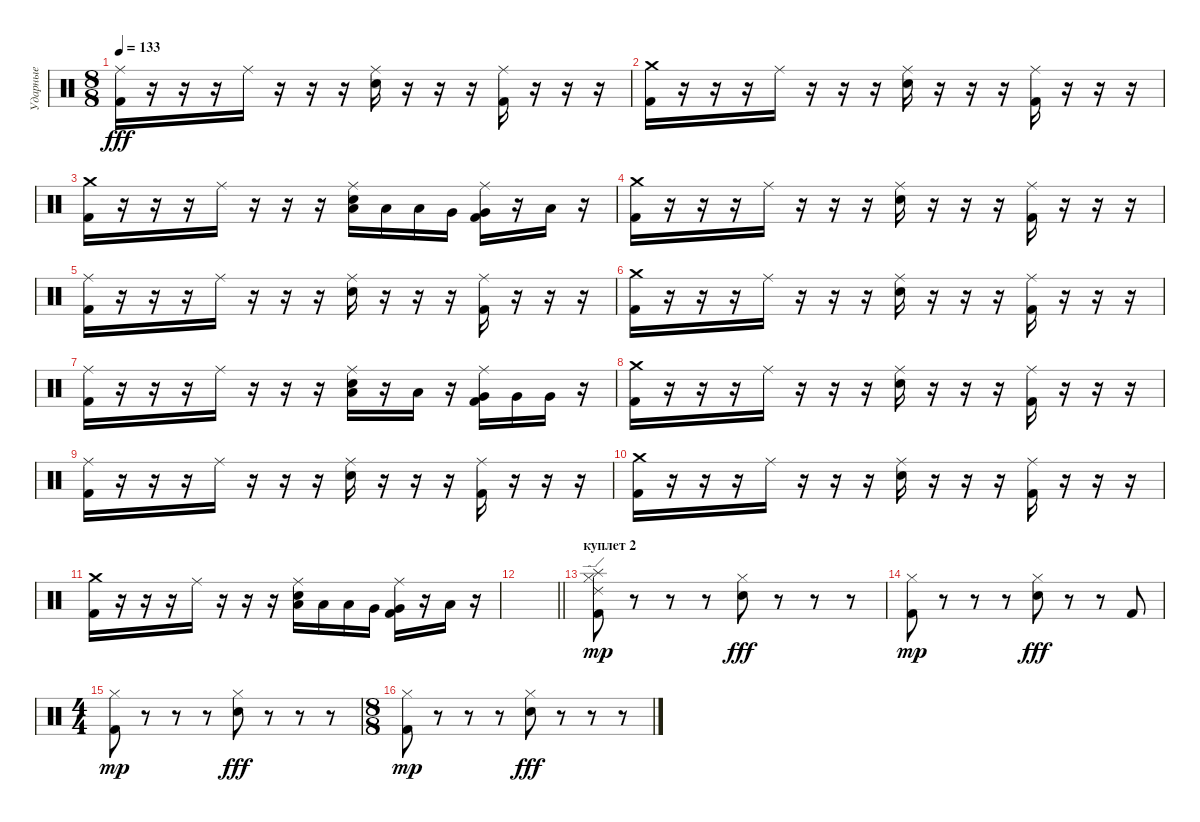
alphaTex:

\track ("Ударные" "Ударные") {instrument percussion}
\staff {score}
\articulation defaults
\ts (8 8)
\tempo 133
\clef neutral
\ks c
("Ride (middle)" "Kick (hit) 2").16{dy fff} r.16 r.16 r.16 "Ride (middle)".16 r.16 r.16 r.16 ("Ride (middle)" "Snare (hit) 2").16 r.16 r.16 r.16 ("Ride (middle)" "Kick (hit) 2").16 r.16 r.16 r.16 |
("Crash medium (hit)" "Kick (hit) 2").16 r.16 r.16 r.16 "Ride (middle)".16 r.16 r.16 r.16 ("Ride (middle)" "Snare (hit) 2").16 r.16 r.16 r.16 ("Ride (middle)" "Kick (hit) 2").16 r.16 r.16 r.16 |
("Crash medium (hit)" "Kick (hit) 2").16 r.16 r.16 r.16 "Ride (middle)".16 r.16 r.16 r.16 ("Ride (middle)" "Low Tom (hit)" "Snare (hit) 2").16 "Low Tom (hit)".16 "Low Tom (hit)".16 "Very Low Tom (hit)".16 ("Ride (middle)" "Very Low Tom (hit)" "Kick (hit) 2").16 r.16 "Low Floor Tom (hit)".16 r.16 |
("Crash medium (hit)" "Kick (hit) 2").16 r.16 r.16 r.16 "Ride (middle)".16 r.16 r.16 r.16 ("Ride (middle)" "Snare (hit) 2").16 r.16 r.16 r.16 ("Ride (middle)" "Kick (hit) 2").16 r.16 r.16 r.16 |
("Ride (middle)" "Kick (hit) 2").16 r.16 r.16 r.16 "Ride (middle)".16 r.16 r.16 r.16 ("Ride (middle)" "Snare (hit) 2").16 r.16 r.16 r.16 ("Ride (middle)" "Kick (hit) 2").16 r.16 r.16 r.16 |
("Crash medium (hit)" "Kick (hit) 2").16 r.16 r.16 r.16 "Ride (middle)".16 r.16 r.16 r.16 ("Ride (middle)" "Snare (hit) 2").16 r.16 r.16 r.16 ("Ride (middle)" "Kick (hit) 2").16 r.16 r.16 r.16 |
("Ride (middle)" "Kick (hit) 2").16 r.16 r.16 r.16 "Ride (middle)".16 r.16 r.16 r.16 ("Ride (middle)" "Low Tom (hit)" "Snare (hit) 2").16 r.16 "Low Tom (hit)".16 r.16 ("Ride (middle)" "Very Low Tom (hit)" "Kick (hit) 2").16 "Very Low Tom (hit)".16 "Very Low Tom (hit)".16 r.16 |
("Crash medium (hit)" "Kick (hit) 2").16 r.16 r.16 r.16 "Ride (middle)".16 r.16 r.16 r.16 ("Ride (middle)" "Snare (hit) 2").16 r.16 r.16 r.16 ("Ride (middle)" "Kick (hit) 2").16 r.16 r.16 r.16 |
("Ride (middle)" "Kick (hit) 2").16 r.16 r.16 r.16 "Ride (middle)".16 r.16 r.16 r.16 ("Ride (middle)" "Snare (hit) 2").16 r.16 r.16 r.16 ("Ride (middle)" "Kick (hit) 2").16 r.16 r.16 r.16 |
("Crash medium (hit)" "Kick (hit) 2").16 r.16 r.16 r.16 "Ride (middle)".16 r.16 r.16 r.16 ("Ride (middle)" "Snare (hit) 2").16 r.16 r.16 r.16 ("Ride (middle)" "Kick (hit) 2").16 r.16 r.16 r.16 |
("Crash medium (hit)" "Kick (hit) 2").16 r.16 r.16 r.16 "Ride (middle)".16 r.16 r.16 r.16 ("Ride (middle)" "Low Tom (hit)" "Snare (hit) 2").16 "Low Tom (hit)".16 "Low Tom (hit)".16 "Very Low Tom (hit)".16 ("Ride (middle)" "Very Low Tom (hit)" "Kick (hit) 2").16 r.16 "Low Floor Tom (hit)".16 r.16 |
\barLineRight lightlight
|
\section ("" "куплет 2")
("Ride (edge) 2" "Splash (hit)" "Kick (hit) 2" "Hi-Hat (closed)").8{dy mp volume 16} r.8 r.8 r.8 ("Electric Snare (hit)" "Hi-Hat (closed)").8{dy fff} r.8 r.8 r.8 |
("Kick (hit) 2" "Hi-Hat (closed)").8{dy mp} r.8 r.8 r.8 ("Electric Snare (hit)" "Hi-Hat (closed)").8{dy fff} r.8 r.8 "Kick (hit) 2".8 |
\ts (4 4)
("Kick (hit) 2" "Hi-Hat (closed)").8{dy mp} r.8 r.8 r.8 ("Electric Snare (hit)" "Hi-Hat (closed)").8{dy fff} r.8 r.8 r.8 |
\ts (8 8)
("Kick (hit) 2" "Hi-Hat (closed)").8{dy mp} r.8 r.8 r.8 ("Electric Snare (hit)" "Hi-Hat (closed)").8{dy fff} r.8 r.8 r.8
